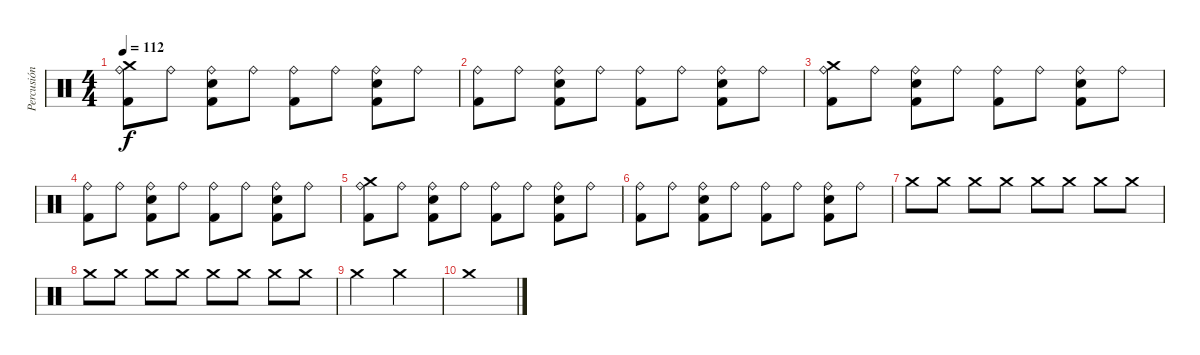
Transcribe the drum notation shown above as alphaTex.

\track ("Percusión" "Percusión") {instrument percussion}
\staff {score}
\articulation defaults
\ts (4 4)
\tempo 112
\clef neutral
\ks c
("Kick (hit) 2" "Ride (bell)" "Crash medium (hit)").8{dy f} "Ride (bell)".8 ("Kick (hit) 2" "Ride (bell)" "Electric Snare (hit)").8 "Ride (bell)".8 ("Kick (hit) 2" "Ride (bell)").8 "Ride (bell)".8 ("Kick (hit) 2" "Ride (bell)" "Electric Snare (hit)").8 "Ride (bell)".8 |
("Kick (hit) 2" "Ride (bell)").8 "Ride (bell)".8 ("Kick (hit) 2" "Ride (bell)" "Electric Snare (hit)").8 "Ride (bell)".8 ("Kick (hit) 2" "Ride (bell)").8 "Ride (bell)".8 ("Kick (hit) 2" "Ride (bell)" "Electric Snare (hit)").8 "Ride (bell)".8 |
("Kick (hit) 2" "Ride (bell)" "Crash medium (hit)").8 "Ride (bell)".8 ("Kick (hit) 2" "Ride (bell)" "Electric Snare (hit)").8 "Ride (bell)".8 ("Kick (hit) 2" "Ride (bell)").8 "Ride (bell)".8 ("Kick (hit) 2" "Ride (bell)" "Electric Snare (hit)").8 "Ride (bell)".8 |
("Kick (hit) 2" "Ride (bell)").8 "Ride (bell)".8 ("Kick (hit) 2" "Ride (bell)" "Electric Snare (hit)").8 "Ride (bell)".8 ("Kick (hit) 2" "Ride (bell)").8 "Ride (bell)".8 ("Kick (hit) 2" "Ride (bell)" "Electric Snare (hit)").8 "Ride (bell)".8 |
("Kick (hit) 2" "Ride (bell)" "Crash medium (hit)").8 "Ride (bell)".8 ("Kick (hit) 2" "Ride (bell)" "Electric Snare (hit)").8 "Ride (bell)".8 ("Kick (hit) 2" "Ride (bell)").8 "Ride (bell)".8 ("Kick (hit) 2" "Ride (bell)" "Electric Snare (hit)").8 "Ride (bell)".8 |
("Kick (hit) 2" "Ride (bell)").8 "Ride (bell)".8 ("Kick (hit) 2" "Ride (bell)" "Electric Snare (hit)").8 "Ride (bell)".8 ("Kick (hit) 2" "Ride (bell)").8 "Ride (bell)".8 ("Kick (hit) 2" "Ride (bell)" "Electric Snare (hit)").8 "Ride (bell)".8 |
"Crash medium (hit)".8 "Crash medium (hit)".8 "Crash medium (hit)".8 "Crash medium (hit)".8 "Crash medium (hit)".8 "Crash medium (hit)".8 "Crash medium (hit)".8 "Crash medium (hit)".8 |
"Crash medium (hit)".8 "Crash medium (hit)".8 "Crash medium (hit)".8 "Crash medium (hit)".8 "Crash medium (hit)".8 "Crash medium (hit)".8 "Crash medium (hit)".8 "Crash medium (hit)".8 |
"Crash medium (hit)".2 "Crash medium (hit)".2 |
"Crash medium (hit)".1
